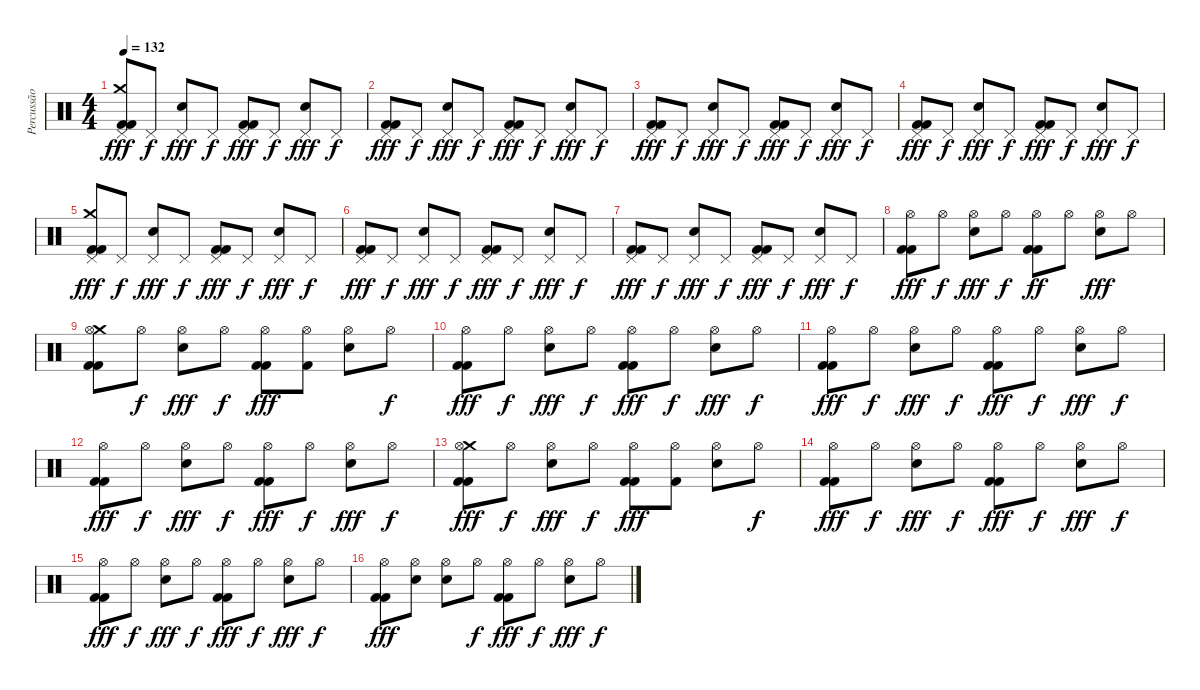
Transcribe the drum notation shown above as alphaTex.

\track ("Percussão" "Percussão") {instrument percussion}
\staff {score}
\articulation defaults
\ts (4 4)
\tempo 132
\clef neutral
\ks c
("Kick (hit) 2" "Kick (hit) 2" "Crash medium (hit)" "Pedal Hi-Hat (hit)").8{dy fff} "Pedal Hi-Hat (hit)".8{dy f} ("Electric Snare (hit)" "Pedal Hi-Hat (hit)").8{dy fff} "Pedal Hi-Hat (hit)".8{dy f} ("Kick (hit) 2" "Kick (hit) 2" "Pedal Hi-Hat (hit)").8{dy fff} "Pedal Hi-Hat (hit)".8{dy f} ("Electric Snare (hit)" "Pedal Hi-Hat (hit)").8{dy fff} "Pedal Hi-Hat (hit)".8{dy f} |
("Kick (hit) 2" "Kick (hit) 2" "Pedal Hi-Hat (hit)").8{dy fff} "Pedal Hi-Hat (hit)".8{dy f} ("Electric Snare (hit)" "Pedal Hi-Hat (hit)").8{dy fff} "Pedal Hi-Hat (hit)".8{dy f} ("Kick (hit) 2" "Kick (hit) 2" "Pedal Hi-Hat (hit)").8{dy fff} "Pedal Hi-Hat (hit)".8{dy f} ("Electric Snare (hit)" "Pedal Hi-Hat (hit)").8{dy fff} "Pedal Hi-Hat (hit)".8{dy f} |
("Kick (hit) 2" "Kick (hit) 2" "Pedal Hi-Hat (hit)").8{dy fff} "Pedal Hi-Hat (hit)".8{dy f} ("Electric Snare (hit)" "Pedal Hi-Hat (hit)").8{dy fff} "Pedal Hi-Hat (hit)".8{dy f} ("Kick (hit) 2" "Kick (hit) 2" "Pedal Hi-Hat (hit)").8{dy fff} "Pedal Hi-Hat (hit)".8{dy f} ("Electric Snare (hit)" "Pedal Hi-Hat (hit)").8{dy fff} "Pedal Hi-Hat (hit)".8{dy f} |
("Kick (hit) 2" "Kick (hit) 2" "Pedal Hi-Hat (hit)").8{dy fff} "Pedal Hi-Hat (hit)".8{dy f} ("Electric Snare (hit)" "Pedal Hi-Hat (hit)").8{dy fff} "Pedal Hi-Hat (hit)".8{dy f} ("Kick (hit) 2" "Kick (hit) 2" "Pedal Hi-Hat (hit)").8{dy fff} "Pedal Hi-Hat (hit)".8{dy f} ("Electric Snare (hit)" "Pedal Hi-Hat (hit)").8{dy fff} "Pedal Hi-Hat (hit)".8{dy f} |
("Kick (hit) 2" "Kick (hit) 2" "Crash medium (hit)" "Pedal Hi-Hat (hit)").8{dy fff} "Pedal Hi-Hat (hit)".8{dy f} ("Electric Snare (hit)" "Pedal Hi-Hat (hit)").8{dy fff} "Pedal Hi-Hat (hit)".8{dy f} ("Kick (hit) 2" "Kick (hit) 2" "Pedal Hi-Hat (hit)").8{dy fff} "Pedal Hi-Hat (hit)".8{dy f} ("Electric Snare (hit)" "Pedal Hi-Hat (hit)").8{dy fff} "Pedal Hi-Hat (hit)".8{dy f} |
("Kick (hit) 2" "Kick (hit) 2" "Pedal Hi-Hat (hit)").8{dy fff} "Pedal Hi-Hat (hit)".8{dy f} ("Electric Snare (hit)" "Pedal Hi-Hat (hit)").8{dy fff} "Pedal Hi-Hat (hit)".8{dy f} ("Kick (hit) 2" "Kick (hit) 2" "Pedal Hi-Hat (hit)").8{dy fff} "Pedal Hi-Hat (hit)".8{dy f} ("Electric Snare (hit)" "Pedal Hi-Hat (hit)").8{dy fff} "Pedal Hi-Hat (hit)".8{dy f} |
("Kick (hit) 2" "Kick (hit) 2" "Pedal Hi-Hat (hit)").8{dy fff} "Pedal Hi-Hat (hit)".8{dy f} ("Electric Snare (hit)" "Pedal Hi-Hat (hit)").8{dy fff} "Pedal Hi-Hat (hit)".8{dy f} ("Kick (hit) 2" "Kick (hit) 2" "Pedal Hi-Hat (hit)").8{dy fff} "Pedal Hi-Hat (hit)".8{dy f} ("Electric Snare (hit)" "Pedal Hi-Hat (hit)").8{dy fff} "Pedal Hi-Hat (hit)".8{dy f} |
("Kick (hit) 2" "Kick (hit) 2" "Hi-Hat (open)").8{dy fff} "Hi-Hat (open)".8{dy f} ("Electric Snare (hit)" "Hi-Hat (open)").8{dy fff} "Hi-Hat (open)".8{dy f} ("Kick (hit) 2" "Kick (hit) 2" "Hi-Hat (open)").8{dy ff} "Hi-Hat (open)".8 ("Electric Snare (hit)" "Hi-Hat (open)").8{dy fff} "Hi-Hat (open)".8 |
("Kick (hit) 2" "Kick (hit) 2" "Crash medium (hit)" "Hi-Hat (open)").8 "Hi-Hat (open)".8{dy f} ("Electric Snare (hit)" "Hi-Hat (open)").8{dy fff} "Hi-Hat (open)".8{dy f} ("Kick (hit) 2" "Kick (hit) 2" "Hi-Hat (open)").8{dy fff} ("Kick (hit) 2" "Hi-Hat (open)").8 ("Electric Snare (hit)" "Hi-Hat (open)").8 "Hi-Hat (open)".8{dy f} |
("Kick (hit) 2" "Kick (hit) 2" "Hi-Hat (open)").8{dy fff} "Hi-Hat (open)".8{dy f} ("Electric Snare (hit)" "Hi-Hat (open)").8{dy fff} "Hi-Hat (open)".8{dy f} ("Kick (hit) 2" "Kick (hit) 2" "Hi-Hat (open)").8{dy fff} "Hi-Hat (open)".8{dy f} ("Electric Snare (hit)" "Hi-Hat (open)").8{dy fff} "Hi-Hat (open)".8{dy f} |
("Kick (hit) 2" "Kick (hit) 2" "Hi-Hat (open)").8{dy fff} "Hi-Hat (open)".8{dy f} ("Electric Snare (hit)" "Hi-Hat (open)").8{dy fff} "Hi-Hat (open)".8{dy f} ("Kick (hit) 2" "Kick (hit) 2" "Hi-Hat (open)").8{dy fff} "Hi-Hat (open)".8{dy f} ("Electric Snare (hit)" "Hi-Hat (open)").8{dy fff} "Hi-Hat (open)".8{dy f} |
("Kick (hit) 2" "Kick (hit) 2" "Hi-Hat (open)").8{dy fff} "Hi-Hat (open)".8{dy f} ("Electric Snare (hit)" "Hi-Hat (open)").8{dy fff} "Hi-Hat (open)".8{dy f} ("Kick (hit) 2" "Kick (hit) 2" "Hi-Hat (open)").8{dy fff} "Hi-Hat (open)".8{dy f} ("Electric Snare (hit)" "Hi-Hat (open)").8{dy fff} "Hi-Hat (open)".8{dy f} |
("Kick (hit) 2" "Kick (hit) 2" "Crash medium (hit)" "Hi-Hat (open)").8{dy fff} "Hi-Hat (open)".8{dy f} ("Electric Snare (hit)" "Hi-Hat (open)").8{dy fff} "Hi-Hat (open)".8{dy f} ("Kick (hit) 2" "Kick (hit) 2" "Hi-Hat (open)").8{dy fff} ("Kick (hit) 2" "Hi-Hat (open)").8 ("Electric Snare (hit)" "Hi-Hat (open)").8 "Hi-Hat (open)".8{dy f} |
("Kick (hit) 2" "Kick (hit) 2" "Hi-Hat (open)").8{dy fff} "Hi-Hat (open)".8{dy f} ("Electric Snare (hit)" "Hi-Hat (open)").8{dy fff} "Hi-Hat (open)".8{dy f} ("Kick (hit) 2" "Kick (hit) 2" "Hi-Hat (open)").8{dy fff} "Hi-Hat (open)".8{dy f} ("Electric Snare (hit)" "Hi-Hat (open)").8{dy fff} "Hi-Hat (open)".8{dy f} |
("Kick (hit) 2" "Kick (hit) 2" "Hi-Hat (open)").8{dy fff} "Hi-Hat (open)".8{dy f} ("Electric Snare (hit)" "Hi-Hat (open)").8{dy fff} "Hi-Hat (open)".8{dy f} ("Kick (hit) 2" "Kick (hit) 2" "Hi-Hat (open)").8{dy fff} "Hi-Hat (open)".8{dy f} ("Electric Snare (hit)" "Hi-Hat (open)").8{dy fff} "Hi-Hat (open)".8{dy f} |
("Kick (hit) 2" "Kick (hit) 2" "Hi-Hat (open)").8{dy fff} ("Electric Snare (hit)" "Hi-Hat (open)").8 ("Electric Snare (hit)" "Hi-Hat (open)").8 "Hi-Hat (open)".8{dy f} ("Kick (hit) 2" "Kick (hit) 2" "Hi-Hat (open)").8{dy fff} "Hi-Hat (open)".8{dy f} ("Electric Snare (hit)" "Hi-Hat (open)").8{dy fff} "Hi-Hat (open)".8{dy f}
